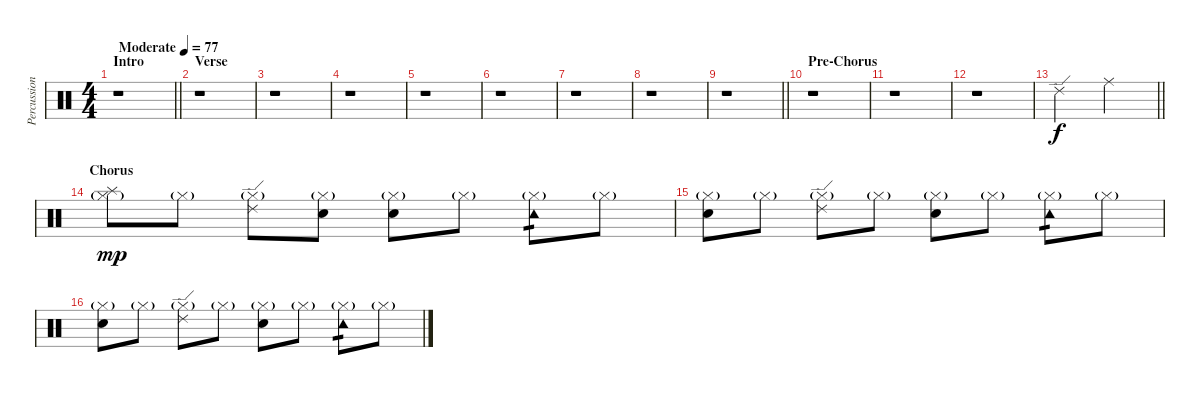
\track ("Percussion" "Percussion") {instrument percussion}
\staff {score}
\articulation defaults
\ts (4 4)
\section ("" "Intro")
\tempo (77 "Moderate")
\clef neutral
\barLineRight lightlight
\ks c
r.1{dy f} |
\section ("" "Verse")
r.1 |
r.1 |
r.1 |
r.1 |
r.1 |
r.1 |
r.1 |
\barLineRight lightlight
r.1 |
\section ("" "Pre-Chorus")
r.1 |
r.1 |
r.1 |
\barLineRight lightlight "Ride (edge) 2".2 "Ride (middle)".2
|
\section ("" "Chorus")
("Hi-Hat (closed)"{g} "Splash (hit)").8{dy mp} "Hi-Hat (closed)"{g}.8 ("Hi-Hat (closed)"{g} "Ride (edge) 2").8 ("Hi-Hat (closed)"{g} "Snare (hit)").8 ("Hi-Hat (closed)"{g} "Snare (hit)").8 "Hi-Hat (closed)"{g}.8 ("Hi-Hat (closed)"{g} "Tambourine (hit)").8{tp 1} "Hi-Hat (closed)"{g}.8 |
("Hi-Hat (closed)"{g} "Snare (hit)").8 "Hi-Hat (closed)"{g}.8 ("Hi-Hat (closed)"{g} "Ride (edge) 2").8 "Hi-Hat (closed)"{g}.8 ("Hi-Hat (closed)"{g} "Snare (hit)").8 "Hi-Hat (closed)"{g}.8 ("Hi-Hat (closed)"{g} "Tambourine (hit)").8{tp 1} "Hi-Hat (closed)"{g}.8 |
("Hi-Hat (closed)"{g} "Snare (hit)").8 "Hi-Hat (closed)"{g}.8 ("Hi-Hat (closed)"{g} "Ride (edge) 2").8 "Hi-Hat (closed)"{g}.8 ("Hi-Hat (closed)"{g} "Snare (hit)").8 "Hi-Hat (closed)"{g}.8 ("Hi-Hat (closed)"{g} "Tambourine (hit)").8{tp 1} "Hi-Hat (closed)"{g}.8
